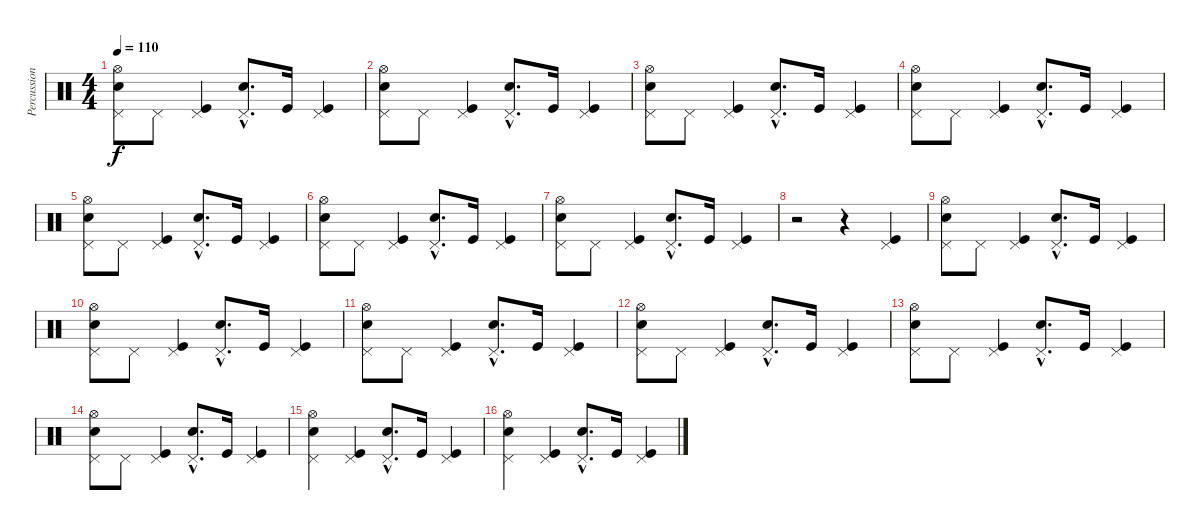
\track ("Percussions" "Percussion") {instrument percussion}
\staff {score}
\articulation defaults
\ts (4 4)
\tempo 110
\clef neutral
\ks c
("Pedal Hi-Hat (hit)" "Hand Clap (hit)" "Hi-Hat (open)").8{dy f} "Pedal Hi-Hat (hit)".8 ("Pedal Hi-Hat (hit)" "Kick (hit)").4 ("Pedal Hi-Hat (hit)"{hac} "Hand Clap (hit)"{hac}).8{d} "Kick (hit)".16 ("Pedal Hi-Hat (hit)" "Kick (hit)").4 |
("Pedal Hi-Hat (hit)" "Hand Clap (hit)" "Hi-Hat (open)").8 "Pedal Hi-Hat (hit)".8 ("Pedal Hi-Hat (hit)" "Kick (hit)").4 ("Pedal Hi-Hat (hit)"{hac} "Hand Clap (hit)"{hac}).8{d} "Kick (hit)".16 ("Pedal Hi-Hat (hit)" "Kick (hit)").4 |
("Pedal Hi-Hat (hit)" "Hand Clap (hit)" "Hi-Hat (open)").8 "Pedal Hi-Hat (hit)".8 ("Pedal Hi-Hat (hit)" "Kick (hit)").4 ("Pedal Hi-Hat (hit)"{hac} "Hand Clap (hit)"{hac}).8{d} "Kick (hit)".16 ("Pedal Hi-Hat (hit)" "Kick (hit)").4 |
("Pedal Hi-Hat (hit)" "Hand Clap (hit)" "Hi-Hat (open)").8 "Pedal Hi-Hat (hit)".8 ("Pedal Hi-Hat (hit)" "Kick (hit)").4 ("Pedal Hi-Hat (hit)"{hac} "Hand Clap (hit)"{hac}).8{d} "Kick (hit)".16 ("Pedal Hi-Hat (hit)" "Kick (hit)").4 |
("Pedal Hi-Hat (hit)" "Hand Clap (hit)" "Hi-Hat (open)").8 "Pedal Hi-Hat (hit)".8 ("Pedal Hi-Hat (hit)" "Kick (hit)").4 ("Pedal Hi-Hat (hit)"{hac} "Hand Clap (hit)"{hac}).8{d} "Kick (hit)".16 ("Pedal Hi-Hat (hit)" "Kick (hit)").4 |
("Pedal Hi-Hat (hit)" "Hand Clap (hit)" "Hi-Hat (open)").8 "Pedal Hi-Hat (hit)".8 ("Pedal Hi-Hat (hit)" "Kick (hit)").4 ("Pedal Hi-Hat (hit)"{hac} "Hand Clap (hit)"{hac}).8{d} "Kick (hit)".16 ("Pedal Hi-Hat (hit)" "Kick (hit)").4 |
("Pedal Hi-Hat (hit)" "Hand Clap (hit)" "Hi-Hat (open)").8 "Pedal Hi-Hat (hit)".8 ("Pedal Hi-Hat (hit)" "Kick (hit)").4 ("Pedal Hi-Hat (hit)"{hac} "Hand Clap (hit)"{hac}).8{d} "Kick (hit)".16 ("Pedal Hi-Hat (hit)" "Kick (hit)").4 |
r.2 r.4 ("Pedal Hi-Hat (hit)" "Kick (hit)").4 |
("Pedal Hi-Hat (hit)" "Hand Clap (hit)" "Hi-Hat (open)").8 "Pedal Hi-Hat (hit)".8 ("Pedal Hi-Hat (hit)" "Kick (hit)").4 ("Pedal Hi-Hat (hit)"{hac} "Hand Clap (hit)"{hac}).8{d} "Kick (hit)".16 ("Pedal Hi-Hat (hit)" "Kick (hit)").4 |
("Pedal Hi-Hat (hit)" "Hand Clap (hit)" "Hi-Hat (open)").8 "Pedal Hi-Hat (hit)".8 ("Pedal Hi-Hat (hit)" "Kick (hit)").4 ("Pedal Hi-Hat (hit)"{hac} "Hand Clap (hit)"{hac}).8{d} "Kick (hit)".16 ("Pedal Hi-Hat (hit)" "Kick (hit)").4 |
("Pedal Hi-Hat (hit)" "Hand Clap (hit)" "Hi-Hat (open)").8 "Pedal Hi-Hat (hit)".8 ("Pedal Hi-Hat (hit)" "Kick (hit)").4 ("Pedal Hi-Hat (hit)"{hac} "Hand Clap (hit)"{hac}).8{d} "Kick (hit)".16 ("Pedal Hi-Hat (hit)" "Kick (hit)").4 |
("Pedal Hi-Hat (hit)" "Hand Clap (hit)" "Hi-Hat (open)").8 "Pedal Hi-Hat (hit)".8 ("Pedal Hi-Hat (hit)" "Kick (hit)").4 ("Pedal Hi-Hat (hit)"{hac} "Hand Clap (hit)"{hac}).8{d} "Kick (hit)".16 ("Pedal Hi-Hat (hit)" "Kick (hit)").4 |
("Pedal Hi-Hat (hit)" "Hand Clap (hit)" "Hi-Hat (open)").8 "Pedal Hi-Hat (hit)".8 ("Pedal Hi-Hat (hit)" "Kick (hit)").4 ("Pedal Hi-Hat (hit)"{hac} "Hand Clap (hit)"{hac}).8{d} "Kick (hit)".16 ("Pedal Hi-Hat (hit)" "Kick (hit)").4 |
("Pedal Hi-Hat (hit)" "Hand Clap (hit)" "Hi-Hat (open)").8 "Pedal Hi-Hat (hit)".8 ("Pedal Hi-Hat (hit)" "Kick (hit)").4 ("Pedal Hi-Hat (hit)"{hac} "Hand Clap (hit)"{hac}).8{d} "Kick (hit)".16 ("Pedal Hi-Hat (hit)" "Kick (hit)").4 |
("Pedal Hi-Hat (hit)" "Hand Clap (hit)" "Hi-Hat (open)").4 ("Pedal Hi-Hat (hit)" "Kick (hit)").4 ("Pedal Hi-Hat (hit)"{hac} "Hand Clap (hit)"{hac}).8{d} "Kick (hit)".16 ("Pedal Hi-Hat (hit)" "Kick (hit)").4 |
("Pedal Hi-Hat (hit)" "Hand Clap (hit)" "Hi-Hat (open)").4 ("Pedal Hi-Hat (hit)" "Kick (hit)").4 ("Pedal Hi-Hat (hit)"{hac} "Hand Clap (hit)"{hac}).8{d} "Kick (hit)".16 ("Pedal Hi-Hat (hit)" "Kick (hit)").4
